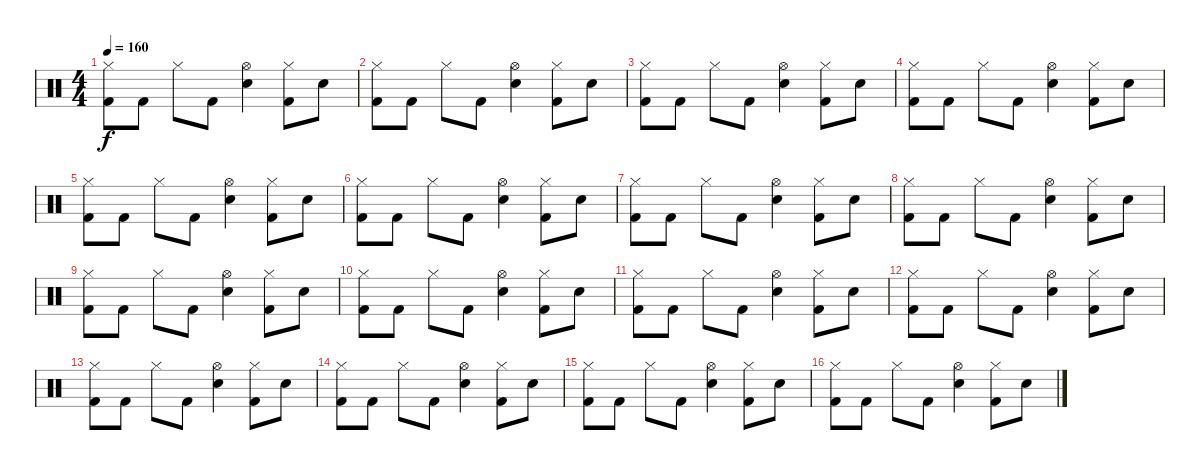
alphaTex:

\track "" {instrument percussion}
\staff {score}
\articulation defaults
\ts (4 4)
\tempo 160
\clef neutral
\ks c
("Hi-Hat (closed)" "Kick (hit) 2").8{dy f} "Kick (hit) 2".8 "Hi-Hat (closed)".8 "Kick (hit) 2".8 ("Hi-Hat (open)" "Electric Snare (hit)").4 ("Hi-Hat (closed)" "Kick (hit) 2").8 "Electric Snare (hit)".8 |
("Hi-Hat (closed)" "Kick (hit) 2").8 "Kick (hit) 2".8 "Hi-Hat (closed)".8 "Kick (hit) 2".8 ("Hi-Hat (open)" "Electric Snare (hit)").4 ("Hi-Hat (closed)" "Kick (hit) 2").8 "Electric Snare (hit)".8 |
("Hi-Hat (closed)" "Kick (hit) 2").8 "Kick (hit) 2".8 "Hi-Hat (closed)".8 "Kick (hit) 2".8 ("Hi-Hat (open)" "Electric Snare (hit)").4 ("Hi-Hat (closed)" "Kick (hit) 2").8 "Electric Snare (hit)".8 |
("Hi-Hat (closed)" "Kick (hit) 2").8 "Kick (hit) 2".8 "Hi-Hat (closed)".8 "Kick (hit) 2".8 ("Hi-Hat (open)" "Electric Snare (hit)").4 ("Hi-Hat (closed)" "Kick (hit) 2").8 "Electric Snare (hit)".8 |
("Hi-Hat (closed)" "Kick (hit) 2").8 "Kick (hit) 2".8 "Hi-Hat (closed)".8 "Kick (hit) 2".8 ("Hi-Hat (open)" "Electric Snare (hit)").4 ("Hi-Hat (closed)" "Kick (hit) 2").8 "Electric Snare (hit)".8 |
("Hi-Hat (closed)" "Kick (hit) 2").8 "Kick (hit) 2".8 "Hi-Hat (closed)".8 "Kick (hit) 2".8 ("Hi-Hat (open)" "Electric Snare (hit)").4 ("Hi-Hat (closed)" "Kick (hit) 2").8 "Electric Snare (hit)".8 |
("Hi-Hat (closed)" "Kick (hit) 2").8 "Kick (hit) 2".8 "Hi-Hat (closed)".8 "Kick (hit) 2".8 ("Hi-Hat (open)" "Electric Snare (hit)").4 ("Hi-Hat (closed)" "Kick (hit) 2").8 "Electric Snare (hit)".8 |
("Hi-Hat (closed)" "Kick (hit) 2").8 "Kick (hit) 2".8 "Hi-Hat (closed)".8 "Kick (hit) 2".8 ("Hi-Hat (open)" "Electric Snare (hit)").4 ("Hi-Hat (closed)" "Kick (hit) 2").8 "Electric Snare (hit)".8 |
("Hi-Hat (closed)" "Kick (hit) 2").8 "Kick (hit) 2".8 "Hi-Hat (closed)".8 "Kick (hit) 2".8 ("Hi-Hat (open)" "Electric Snare (hit)").4 ("Hi-Hat (closed)" "Kick (hit) 2").8 "Electric Snare (hit)".8 |
("Hi-Hat (closed)" "Kick (hit) 2").8 "Kick (hit) 2".8 "Hi-Hat (closed)".8 "Kick (hit) 2".8 ("Hi-Hat (open)" "Electric Snare (hit)").4 ("Hi-Hat (closed)" "Kick (hit) 2").8 "Electric Snare (hit)".8 |
("Hi-Hat (closed)" "Kick (hit) 2").8 "Kick (hit) 2".8 "Hi-Hat (closed)".8 "Kick (hit) 2".8 ("Hi-Hat (open)" "Electric Snare (hit)").4 ("Hi-Hat (closed)" "Kick (hit) 2").8 "Electric Snare (hit)".8 |
("Hi-Hat (closed)" "Kick (hit) 2").8 "Kick (hit) 2".8 "Hi-Hat (closed)".8 "Kick (hit) 2".8 ("Hi-Hat (open)" "Electric Snare (hit)").4 ("Hi-Hat (closed)" "Kick (hit) 2").8 "Electric Snare (hit)".8 |
("Hi-Hat (closed)" "Kick (hit) 2").8 "Kick (hit) 2".8 "Hi-Hat (closed)".8 "Kick (hit) 2".8 ("Hi-Hat (open)" "Electric Snare (hit)").4 ("Hi-Hat (closed)" "Kick (hit) 2").8 "Electric Snare (hit)".8 |
("Hi-Hat (closed)" "Kick (hit) 2").8 "Kick (hit) 2".8 "Hi-Hat (closed)".8 "Kick (hit) 2".8 ("Hi-Hat (open)" "Electric Snare (hit)").4 ("Hi-Hat (closed)" "Kick (hit) 2").8 "Electric Snare (hit)".8 |
("Hi-Hat (closed)" "Kick (hit) 2").8 "Kick (hit) 2".8 "Hi-Hat (closed)".8 "Kick (hit) 2".8 ("Hi-Hat (open)" "Electric Snare (hit)").4 ("Hi-Hat (closed)" "Kick (hit) 2").8 "Electric Snare (hit)".8 |
("Hi-Hat (closed)" "Kick (hit) 2").8 "Kick (hit) 2".8 "Hi-Hat (closed)".8 "Kick (hit) 2".8 ("Hi-Hat (open)" "Electric Snare (hit)").4 ("Hi-Hat (closed)" "Kick (hit) 2").8 "Electric Snare (hit)".8
